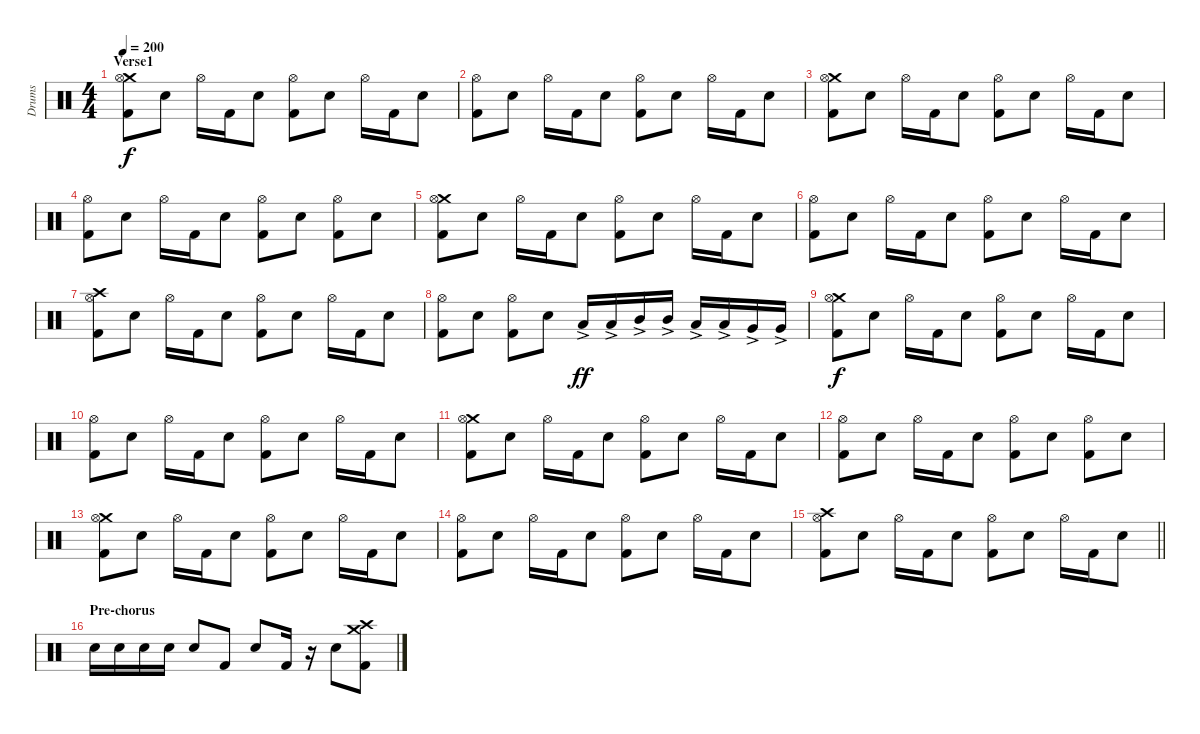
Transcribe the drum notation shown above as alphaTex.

\track ("Drums" "Drums") {instrument percussion}
\staff {score}
\articulation defaults
\ts (4 4)
\section ("" "Verse1")
\tempo 200
\clef neutral
\ks c
("Crash medium (hit)" "Hi-Hat (open)" "Kick (hit) 2").8{dy f} "Electric Snare (hit)".8 "Hi-Hat (open)".16 "Kick (hit) 2".16 "Electric Snare (hit)".8 ("Hi-Hat (open)" "Kick (hit) 2").8 "Electric Snare (hit)".8 "Hi-Hat (open)".16 "Kick (hit) 2".16 "Electric Snare (hit)".8 |
("Hi-Hat (open)" "Kick (hit) 2").8 "Electric Snare (hit)".8 "Hi-Hat (open)".16 "Kick (hit) 2".16 "Electric Snare (hit)".8 ("Hi-Hat (open)" "Kick (hit) 2").8 "Electric Snare (hit)".8 "Hi-Hat (open)".16 "Kick (hit) 2".16 "Electric Snare (hit)".8 |
("Crash medium (hit)" "Hi-Hat (open)" "Kick (hit) 2").8 "Electric Snare (hit)".8 "Hi-Hat (open)".16 "Kick (hit) 2".16 "Electric Snare (hit)".8 ("Hi-Hat (open)" "Kick (hit) 2").8 "Electric Snare (hit)".8 "Hi-Hat (open)".16 "Kick (hit) 2".16 "Electric Snare (hit)".8 |
("Hi-Hat (open)" "Kick (hit) 2").8 "Electric Snare (hit)".8 "Hi-Hat (open)".16 "Kick (hit) 2".16 "Electric Snare (hit)".8 ("Hi-Hat (open)" "Kick (hit) 2").8 "Electric Snare (hit)".8 ("Hi-Hat (open)" "Kick (hit) 2").8 "Electric Snare (hit)".8 |
("Crash medium (hit)" "Hi-Hat (open)" "Kick (hit) 2").8 "Electric Snare (hit)".8 "Hi-Hat (open)".16 "Kick (hit) 2".16 "Electric Snare (hit)".8 ("Hi-Hat (open)" "Kick (hit) 2").8 "Electric Snare (hit)".8 "Hi-Hat (open)".16 "Kick (hit) 2".16 "Electric Snare (hit)".8 |
("Hi-Hat (open)" "Kick (hit) 2").8 "Electric Snare (hit)".8 "Hi-Hat (open)".16 "Kick (hit) 2".16 "Electric Snare (hit)".8 ("Hi-Hat (open)" "Kick (hit) 2").8 "Electric Snare (hit)".8 "Hi-Hat (open)".16 "Kick (hit) 2".16 "Electric Snare (hit)".8 |
("Crash high (hit)" "Hi-Hat (open)" "Kick (hit) 2").8 "Electric Snare (hit)".8 "Hi-Hat (open)".16 "Kick (hit) 2".16 "Electric Snare (hit)".8 ("Hi-Hat (open)" "Kick (hit) 2").8 "Electric Snare (hit)".8 "Hi-Hat (open)".16 "Kick (hit) 2".16 "Electric Snare (hit)".8 |
("Hi-Hat (open)" "Kick (hit) 2").8 "Electric Snare (hit)".8 ("Hi-Hat (open)" "Kick (hit) 2").8 "Electric Snare (hit)".8 "Low Tom (hit)"{ac}.16{dy ff} "Low Tom (hit)"{ac}.16 "Mid Tom (hit)"{ac}.16 "Mid Tom (hit)"{ac}.16 "Low Tom (hit)"{ac}.16 "Low Tom (hit)"{ac}.16 "Very Low Tom (hit)"{ac}.16 "Very Low Tom (hit)"{ac}.16 |
("Crash medium (hit)" "Hi-Hat (open)" "Kick (hit) 2").8{dy f} "Electric Snare (hit)".8 "Hi-Hat (open)".16 "Kick (hit) 2".16 "Electric Snare (hit)".8 ("Hi-Hat (open)" "Kick (hit) 2").8 "Electric Snare (hit)".8 "Hi-Hat (open)".16 "Kick (hit) 2".16 "Electric Snare (hit)".8 |
("Hi-Hat (open)" "Kick (hit) 2").8 "Electric Snare (hit)".8 "Hi-Hat (open)".16 "Kick (hit) 2".16 "Electric Snare (hit)".8 ("Hi-Hat (open)" "Kick (hit) 2").8 "Electric Snare (hit)".8 "Hi-Hat (open)".16 "Kick (hit) 2".16 "Electric Snare (hit)".8 |
("Crash medium (hit)" "Hi-Hat (open)" "Kick (hit) 2").8 "Electric Snare (hit)".8 "Hi-Hat (open)".16 "Kick (hit) 2".16 "Electric Snare (hit)".8 ("Hi-Hat (open)" "Kick (hit) 2").8 "Electric Snare (hit)".8 "Hi-Hat (open)".16 "Kick (hit) 2".16 "Electric Snare (hit)".8 |
("Hi-Hat (open)" "Kick (hit) 2").8 "Electric Snare (hit)".8 "Hi-Hat (open)".16 "Kick (hit) 2".16 "Electric Snare (hit)".8 ("Hi-Hat (open)" "Kick (hit) 2").8 "Electric Snare (hit)".8 ("Hi-Hat (open)" "Kick (hit) 2").8 "Electric Snare (hit)".8 |
("Crash medium (hit)" "Hi-Hat (open)" "Kick (hit) 2").8 "Electric Snare (hit)".8 "Hi-Hat (open)".16 "Kick (hit) 2".16 "Electric Snare (hit)".8 ("Hi-Hat (open)" "Kick (hit) 2").8 "Electric Snare (hit)".8 "Hi-Hat (open)".16 "Kick (hit) 2".16 "Electric Snare (hit)".8 |
("Hi-Hat (open)" "Kick (hit) 2").8 "Electric Snare (hit)".8 "Hi-Hat (open)".16 "Kick (hit) 2".16 "Electric Snare (hit)".8 ("Hi-Hat (open)" "Kick (hit) 2").8 "Electric Snare (hit)".8 "Hi-Hat (open)".16 "Kick (hit) 2".16 "Electric Snare (hit)".8 |
\barLineRight lightlight
("Crash high (hit)" "Hi-Hat (open)" "Kick (hit) 2").8 "Electric Snare (hit)".8 "Hi-Hat (open)".16 "Kick (hit) 2".16 "Electric Snare (hit)".8 ("Hi-Hat (open)" "Kick (hit) 2").8 "Electric Snare (hit)".8 "Hi-Hat (open)".16 "Kick (hit) 2".16 "Electric Snare (hit)".8 |
\section ("" "Pre-chorus")
"Electric Snare (hit)".16 "Electric Snare (hit)".16 "Electric Snare (hit)".16 "Electric Snare (hit)".16 "Electric Snare (hit)".8 "Kick (hit) 2".8 "Electric Snare (hit)".8 "Kick (hit) 2".16 r.16 "Electric Snare (hit)".8 ("Crash high (hit)" "Crash medium (hit)" "Kick (hit) 2").8
